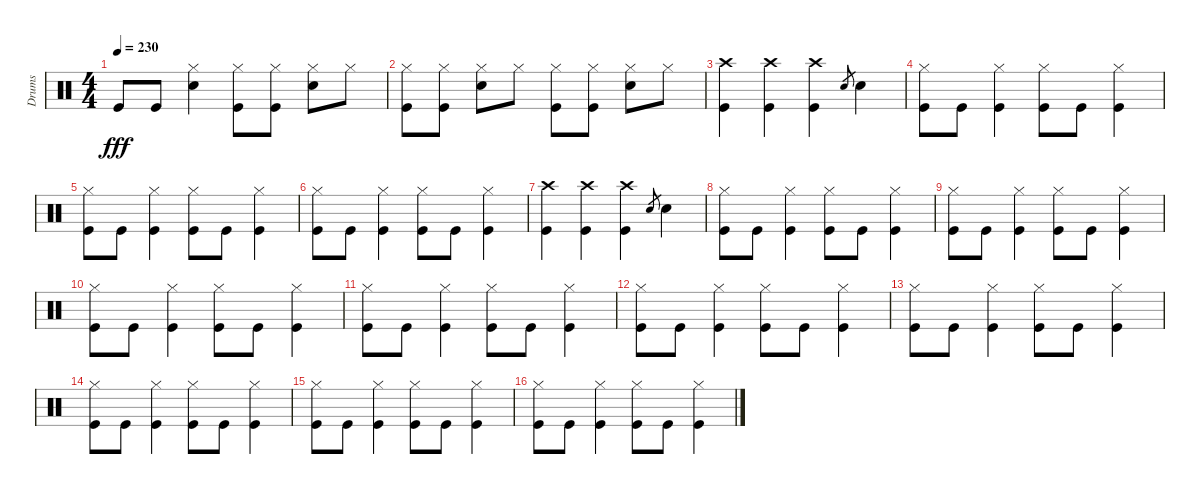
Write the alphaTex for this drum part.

\track ("Drums" "Drums") {instrument percussion}
\staff {score}
\articulation defaults
\ts (4 4)
\tempo 230
\clef neutral
\ks c "Kick (hit)".8{dy fff} "Kick (hit)".8
("Hi-Hat (closed)" "Snare (hit) 2").4 ("Hi-Hat (closed)" "Kick (hit)").8 ("Hi-Hat (closed)" "Kick (hit)").8 ("Hi-Hat (closed)" "Snare (hit) 2").8 "Hi-Hat (closed)".8 |
("Hi-Hat (closed)" "Kick (hit)").8 ("Hi-Hat (closed)" "Kick (hit)").8 ("Hi-Hat (closed)" "Snare (hit) 2").8 "Hi-Hat (closed)".8 ("Hi-Hat (closed)" "Kick (hit)").8 ("Hi-Hat (closed)" "Kick (hit)").8 ("Hi-Hat (closed)" "Snare (hit) 2").8 "Hi-Hat (closed)".8 |
("Crash high (hit)" "Kick (hit)").4 ("Crash high (hit)" "Kick (hit)").4 ("Crash high (hit)" "Kick (hit)").4 "Snare (hit) 2".8{gr} "Snare (hit) 2".4 |
("Hi-Hat (closed)" "Kick (hit)").8 "Kick (hit)".8 ("Hi-Hat (closed)" "Kick (hit)").4 ("Hi-Hat (closed)" "Kick (hit)").8 "Kick (hit)".8 ("Hi-Hat (closed)" "Kick (hit)").4 |
("Hi-Hat (closed)" "Kick (hit)").8 "Kick (hit)".8 ("Hi-Hat (closed)" "Kick (hit)").4 ("Hi-Hat (closed)" "Kick (hit)").8 "Kick (hit)".8 ("Hi-Hat (closed)" "Kick (hit)").4 |
("Hi-Hat (closed)" "Kick (hit)").8 "Kick (hit)".8 ("Hi-Hat (closed)" "Kick (hit)").4 ("Hi-Hat (closed)" "Kick (hit)").8 "Kick (hit)".8 ("Hi-Hat (closed)" "Kick (hit)").4 |
("Crash high (hit)" "Kick (hit)").4 ("Crash high (hit)" "Kick (hit)").4 ("Crash high (hit)" "Kick (hit)").4 "Snare (hit) 2".8{gr} "Snare (hit) 2".4 |
("Hi-Hat (closed)" "Kick (hit)").8 "Kick (hit)".8 ("Hi-Hat (closed)" "Kick (hit)").4 ("Hi-Hat (closed)" "Kick (hit)").8 "Kick (hit)".8 ("Hi-Hat (closed)" "Kick (hit)").4 |
("Hi-Hat (closed)" "Kick (hit)").8 "Kick (hit)".8 ("Hi-Hat (closed)" "Kick (hit)").4 ("Hi-Hat (closed)" "Kick (hit)").8 "Kick (hit)".8 ("Hi-Hat (closed)" "Kick (hit)").4 |
("Hi-Hat (closed)" "Kick (hit)").8 "Kick (hit)".8 ("Hi-Hat (closed)" "Kick (hit)").4 ("Hi-Hat (closed)" "Kick (hit)").8 "Kick (hit)".8 ("Hi-Hat (closed)" "Kick (hit)").4 |
("Hi-Hat (closed)" "Kick (hit)").8 "Kick (hit)".8 ("Hi-Hat (closed)" "Kick (hit)").4 ("Hi-Hat (closed)" "Kick (hit)").8 "Kick (hit)".8 ("Hi-Hat (closed)" "Kick (hit)").4 |
("Hi-Hat (closed)" "Kick (hit)").8 "Kick (hit)".8 ("Hi-Hat (closed)" "Kick (hit)").4 ("Hi-Hat (closed)" "Kick (hit)").8 "Kick (hit)".8 ("Hi-Hat (closed)" "Kick (hit)").4 |
("Hi-Hat (closed)" "Kick (hit)").8 "Kick (hit)".8 ("Hi-Hat (closed)" "Kick (hit)").4 ("Hi-Hat (closed)" "Kick (hit)").8 "Kick (hit)".8 ("Hi-Hat (closed)" "Kick (hit)").4 |
("Hi-Hat (closed)" "Kick (hit)").8 "Kick (hit)".8 ("Hi-Hat (closed)" "Kick (hit)").4 ("Hi-Hat (closed)" "Kick (hit)").8 "Kick (hit)".8 ("Hi-Hat (closed)" "Kick (hit)").4 |
("Hi-Hat (closed)" "Kick (hit)").8 "Kick (hit)".8 ("Hi-Hat (closed)" "Kick (hit)").4 ("Hi-Hat (closed)" "Kick (hit)").8 "Kick (hit)".8 ("Hi-Hat (closed)" "Kick (hit)").4 |
("Hi-Hat (closed)" "Kick (hit)").8 "Kick (hit)".8 ("Hi-Hat (closed)" "Kick (hit)").4 ("Hi-Hat (closed)" "Kick (hit)").8 "Kick (hit)".8 ("Hi-Hat (closed)" "Kick (hit)").4
